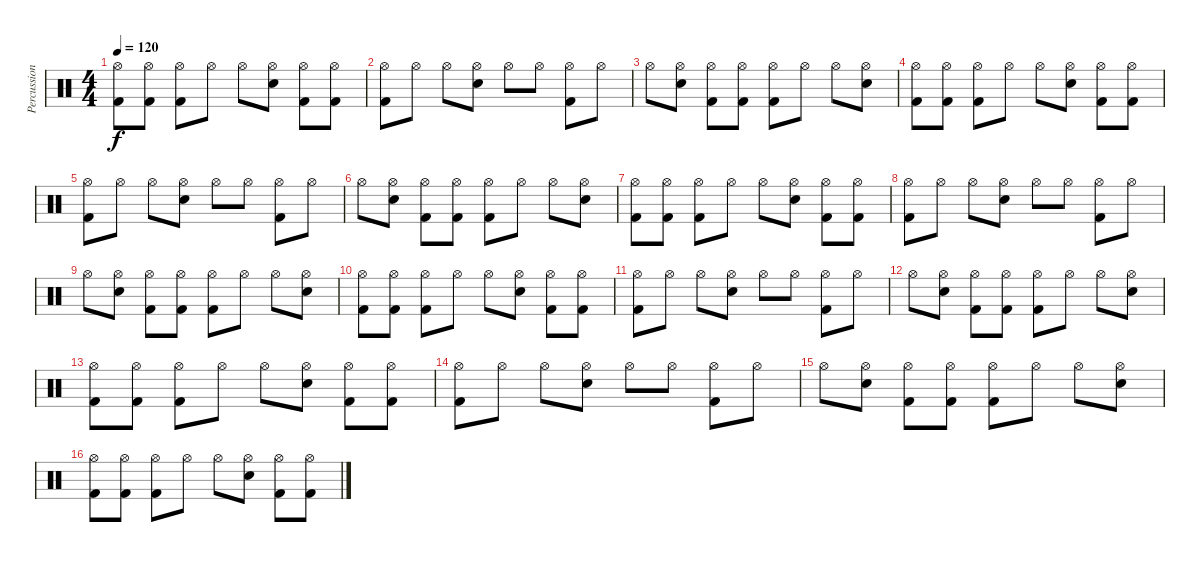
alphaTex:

\track ("Percussion" "Percussion") {instrument percussion}
\staff {score}
\articulation defaults
\ts (4 4)
\tempo 120
\clef neutral
\ks c
("Hi-Hat (open)" "Kick (hit) 2").8{dy f} ("Hi-Hat (open)" "Kick (hit) 2").8 ("Hi-Hat (open)" "Kick (hit) 2").8 "Hi-Hat (open)".8 "Hi-Hat (open)".8 ("Hi-Hat (open)" "Electric Snare (hit)").8 ("Hi-Hat (open)" "Kick (hit) 2").8 ("Hi-Hat (open)" "Kick (hit) 2").8 |
("Hi-Hat (open)" "Kick (hit) 2").8 "Hi-Hat (open)".8 "Hi-Hat (open)".8 ("Hi-Hat (open)" "Electric Snare (hit)").8 "Hi-Hat (open)".8 "Hi-Hat (open)".8 ("Hi-Hat (open)" "Kick (hit) 2").8 "Hi-Hat (open)".8 |
"Hi-Hat (open)".8 ("Hi-Hat (open)" "Electric Snare (hit)").8 ("Hi-Hat (open)" "Kick (hit) 2").8 ("Hi-Hat (open)" "Kick (hit) 2").8 ("Hi-Hat (open)" "Kick (hit) 2").8 "Hi-Hat (open)".8 "Hi-Hat (open)".8 ("Hi-Hat (open)" "Electric Snare (hit)").8 |
("Hi-Hat (open)" "Kick (hit) 2").8 ("Hi-Hat (open)" "Kick (hit) 2").8 ("Hi-Hat (open)" "Kick (hit) 2").8 "Hi-Hat (open)".8 "Hi-Hat (open)".8 ("Hi-Hat (open)" "Electric Snare (hit)").8 ("Hi-Hat (open)" "Kick (hit) 2").8 ("Hi-Hat (open)" "Kick (hit) 2").8 |
("Hi-Hat (open)" "Kick (hit) 2").8 "Hi-Hat (open)".8 "Hi-Hat (open)".8 ("Hi-Hat (open)" "Electric Snare (hit)").8 "Hi-Hat (open)".8 "Hi-Hat (open)".8 ("Hi-Hat (open)" "Kick (hit) 2").8 "Hi-Hat (open)".8 |
"Hi-Hat (open)".8 ("Hi-Hat (open)" "Electric Snare (hit)").8 ("Hi-Hat (open)" "Kick (hit) 2").8 ("Hi-Hat (open)" "Kick (hit) 2").8 ("Hi-Hat (open)" "Kick (hit) 2").8 "Hi-Hat (open)".8 "Hi-Hat (open)".8 ("Hi-Hat (open)" "Electric Snare (hit)").8 |
("Hi-Hat (open)" "Kick (hit) 2").8 ("Hi-Hat (open)" "Kick (hit) 2").8 ("Hi-Hat (open)" "Kick (hit) 2").8 "Hi-Hat (open)".8 "Hi-Hat (open)".8 ("Hi-Hat (open)" "Electric Snare (hit)").8 ("Hi-Hat (open)" "Kick (hit) 2").8 ("Hi-Hat (open)" "Kick (hit) 2").8 |
("Hi-Hat (open)" "Kick (hit) 2").8 "Hi-Hat (open)".8 "Hi-Hat (open)".8 ("Hi-Hat (open)" "Electric Snare (hit)").8 "Hi-Hat (open)".8 "Hi-Hat (open)".8 ("Hi-Hat (open)" "Kick (hit) 2").8 "Hi-Hat (open)".8 |
"Hi-Hat (open)".8 ("Hi-Hat (open)" "Electric Snare (hit)").8 ("Hi-Hat (open)" "Kick (hit) 2").8 ("Hi-Hat (open)" "Kick (hit) 2").8 ("Hi-Hat (open)" "Kick (hit) 2").8 "Hi-Hat (open)".8 "Hi-Hat (open)".8 ("Hi-Hat (open)" "Electric Snare (hit)").8 |
("Hi-Hat (open)" "Kick (hit) 2").8 ("Hi-Hat (open)" "Kick (hit) 2").8 ("Hi-Hat (open)" "Kick (hit) 2").8 "Hi-Hat (open)".8 "Hi-Hat (open)".8 ("Hi-Hat (open)" "Electric Snare (hit)").8 ("Hi-Hat (open)" "Kick (hit) 2").8 ("Hi-Hat (open)" "Kick (hit) 2").8 |
("Hi-Hat (open)" "Kick (hit) 2").8 "Hi-Hat (open)".8 "Hi-Hat (open)".8 ("Hi-Hat (open)" "Electric Snare (hit)").8 "Hi-Hat (open)".8 "Hi-Hat (open)".8 ("Hi-Hat (open)" "Kick (hit) 2").8 "Hi-Hat (open)".8 |
"Hi-Hat (open)".8 ("Hi-Hat (open)" "Electric Snare (hit)").8 ("Hi-Hat (open)" "Kick (hit) 2").8 ("Hi-Hat (open)" "Kick (hit) 2").8 ("Hi-Hat (open)" "Kick (hit) 2").8 "Hi-Hat (open)".8 "Hi-Hat (open)".8 ("Hi-Hat (open)" "Electric Snare (hit)").8 |
("Hi-Hat (open)" "Kick (hit) 2").8 ("Hi-Hat (open)" "Kick (hit) 2").8 ("Hi-Hat (open)" "Kick (hit) 2").8 "Hi-Hat (open)".8 "Hi-Hat (open)".8 ("Hi-Hat (open)" "Electric Snare (hit)").8 ("Hi-Hat (open)" "Kick (hit) 2").8 ("Hi-Hat (open)" "Kick (hit) 2").8 |
("Hi-Hat (open)" "Kick (hit) 2").8 "Hi-Hat (open)".8 "Hi-Hat (open)".8 ("Hi-Hat (open)" "Electric Snare (hit)").8 "Hi-Hat (open)".8 "Hi-Hat (open)".8 ("Hi-Hat (open)" "Kick (hit) 2").8 "Hi-Hat (open)".8 |
"Hi-Hat (open)".8 ("Hi-Hat (open)" "Electric Snare (hit)").8 ("Hi-Hat (open)" "Kick (hit) 2").8 ("Hi-Hat (open)" "Kick (hit) 2").8 ("Hi-Hat (open)" "Kick (hit) 2").8 "Hi-Hat (open)".8 "Hi-Hat (open)".8 ("Hi-Hat (open)" "Electric Snare (hit)").8 |
("Hi-Hat (open)" "Kick (hit) 2").8 ("Hi-Hat (open)" "Kick (hit) 2").8 ("Hi-Hat (open)" "Kick (hit) 2").8 "Hi-Hat (open)".8 "Hi-Hat (open)".8 ("Hi-Hat (open)" "Electric Snare (hit)").8 ("Hi-Hat (open)" "Kick (hit) 2").8 ("Hi-Hat (open)" "Kick (hit) 2").8
